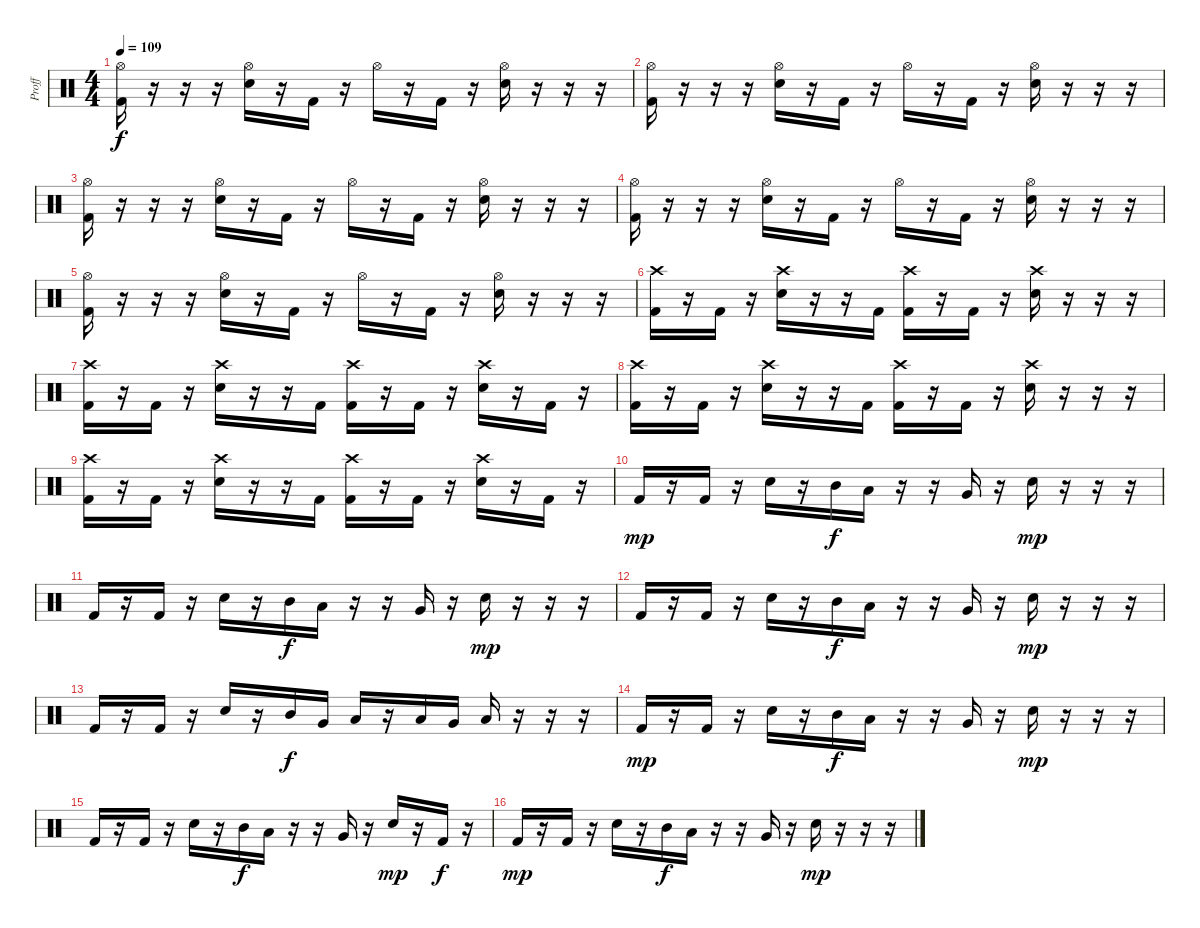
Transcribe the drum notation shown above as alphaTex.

\track ("Proff" "Proff") {instrument percussion}
\staff {score}
\articulation defaults
\ts (4 4)
\tempo 109
\clef neutral
\ks c
("Hi-Hat (open)" "Kick (hit) 2").16{dy f} r.16 r.16 r.16 ("Hi-Hat (open)" "Electric Snare (hit)").16 r.16 "Kick (hit) 2".16 r.16 "Hi-Hat (open)".16 r.16 "Kick (hit) 2".16 r.16 ("Hi-Hat (open)" "Electric Snare (hit)").16 r.16 r.16 r.16 |
("Hi-Hat (open)" "Kick (hit) 2").16 r.16 r.16 r.16 ("Hi-Hat (open)" "Electric Snare (hit)").16 r.16 "Kick (hit) 2".16 r.16 "Hi-Hat (open)".16 r.16 "Kick (hit) 2".16 r.16 ("Hi-Hat (open)" "Electric Snare (hit)").16 r.16 r.16 r.16 |
("Hi-Hat (open)" "Kick (hit) 2").16 r.16 r.16 r.16 ("Hi-Hat (open)" "Electric Snare (hit)").16 r.16 "Kick (hit) 2".16 r.16 "Hi-Hat (open)".16 r.16 "Kick (hit) 2".16 r.16 ("Hi-Hat (open)" "Electric Snare (hit)").16 r.16 r.16 r.16 |
("Hi-Hat (open)" "Kick (hit) 2").16 r.16 r.16 r.16 ("Hi-Hat (open)" "Electric Snare (hit)").16 r.16 "Kick (hit) 2".16 r.16 "Hi-Hat (open)".16 r.16 "Kick (hit) 2".16 r.16 ("Hi-Hat (open)" "Electric Snare (hit)").16 r.16 r.16 r.16 |
("Hi-Hat (open)" "Kick (hit) 2").16 r.16 r.16 r.16 ("Hi-Hat (open)" "Electric Snare (hit)").16 r.16 "Kick (hit) 2".16 r.16 "Hi-Hat (open)".16 r.16 "Kick (hit) 2".16 r.16 ("Hi-Hat (open)" "Electric Snare (hit)").16 r.16 r.16 r.16 |
("Crash high (hit)" "Kick (hit) 2").16 r.16 "Kick (hit) 2".16 r.16 ("Crash high (hit)" "Electric Snare (hit)").16 r.16 r.16 "Kick (hit) 2".16 ("Crash high (hit)" "Kick (hit) 2").16 r.16 "Kick (hit) 2".16 r.16 ("Crash high (hit)" "Electric Snare (hit)").16 r.16 r.16 r.16 |
("Crash high (hit)" "Kick (hit) 2").16 r.16 "Kick (hit) 2".16 r.16 ("Crash high (hit)" "Electric Snare (hit)").16 r.16 r.16 "Kick (hit) 2".16 ("Crash high (hit)" "Kick (hit) 2").16 r.16 "Kick (hit) 2".16 r.16 ("Crash high (hit)" "Electric Snare (hit)").16 r.16 "Kick (hit) 2".16 r.16 |
("Crash high (hit)" "Kick (hit) 2").16 r.16 "Kick (hit) 2".16 r.16 ("Crash high (hit)" "Electric Snare (hit)").16 r.16 r.16 "Kick (hit) 2".16 ("Crash high (hit)" "Kick (hit) 2").16 r.16 "Kick (hit) 2".16 r.16 ("Crash high (hit)" "Electric Snare (hit)").16 r.16 r.16 r.16 |
("Crash high (hit)" "Kick (hit) 2").16 r.16 "Kick (hit) 2".16 r.16 ("Crash high (hit)" "Electric Snare (hit)").16 r.16 r.16 "Kick (hit) 2".16 ("Crash high (hit)" "Kick (hit) 2").16 r.16 "Kick (hit) 2".16 r.16 ("Crash high (hit)" "Electric Snare (hit)").16 r.16 "Kick (hit) 2".16 r.16 |
"Kick (hit) 2".16{dy mp} r.16 "Kick (hit) 2".16 r.16 "Electric Snare (hit)".16 r.16 "Mid Tom (hit)".16{dy f} "Low Tom (hit)".16 r.16 r.16 "Very Low Tom (hit)".16 r.16 "Electric Snare (hit)".16{dy mp} r.16 r.16 r.16 |
"Kick (hit) 2".16 r.16 "Kick (hit) 2".16 r.16 "Electric Snare (hit)".16 r.16 "Mid Tom (hit)".16{dy f} "Low Tom (hit)".16 r.16 r.16 "Very Low Tom (hit)".16 r.16 "Electric Snare (hit)".16{dy mp} r.16 r.16 r.16 |
"Kick (hit) 2".16 r.16 "Kick (hit) 2".16 r.16 "Electric Snare (hit)".16 r.16 "Mid Tom (hit)".16{dy f} "Low Tom (hit)".16 r.16 r.16 "Very Low Tom (hit)".16 r.16 "Electric Snare (hit)".16{dy mp} r.16 r.16 r.16 |
"Kick (hit) 2".16 r.16 "Kick (hit) 2".16 r.16 "Electric Snare (hit)".16 r.16 "Mid Tom (hit)".16{dy f} "Very Low Tom (hit)".16 "Low Tom (hit)".16 r.16 "Low Tom (hit)".16 "Very Low Tom (hit)".16 "Low Floor Tom (hit)".16 r.16 r.16 r.16 |
"Kick (hit) 2".16{dy mp} r.16 "Kick (hit) 2".16 r.16 "Electric Snare (hit)".16 r.16 "Mid Tom (hit)".16{dy f} "Low Tom (hit)".16 r.16 r.16 "Very Low Tom (hit)".16 r.16 "Electric Snare (hit)".16{dy mp} r.16 r.16 r.16 |
"Kick (hit) 2".16 r.16 "Kick (hit) 2".16 r.16 "Electric Snare (hit)".16 r.16 "Mid Tom (hit)".16{dy f} "Low Tom (hit)".16 r.16 r.16 "Very Low Tom (hit)".16 r.16 "Electric Snare (hit)".16{dy mp} r.16 "Kick (hit) 2".16{dy f} r.16 |
"Kick (hit) 2".16{dy mp} r.16 "Kick (hit) 2".16 r.16 "Electric Snare (hit)".16 r.16 "Mid Tom (hit)".16{dy f} "Low Tom (hit)".16 r.16 r.16 "Very Low Tom (hit)".16 r.16 "Electric Snare (hit)".16{dy mp} r.16 r.16 r.16
